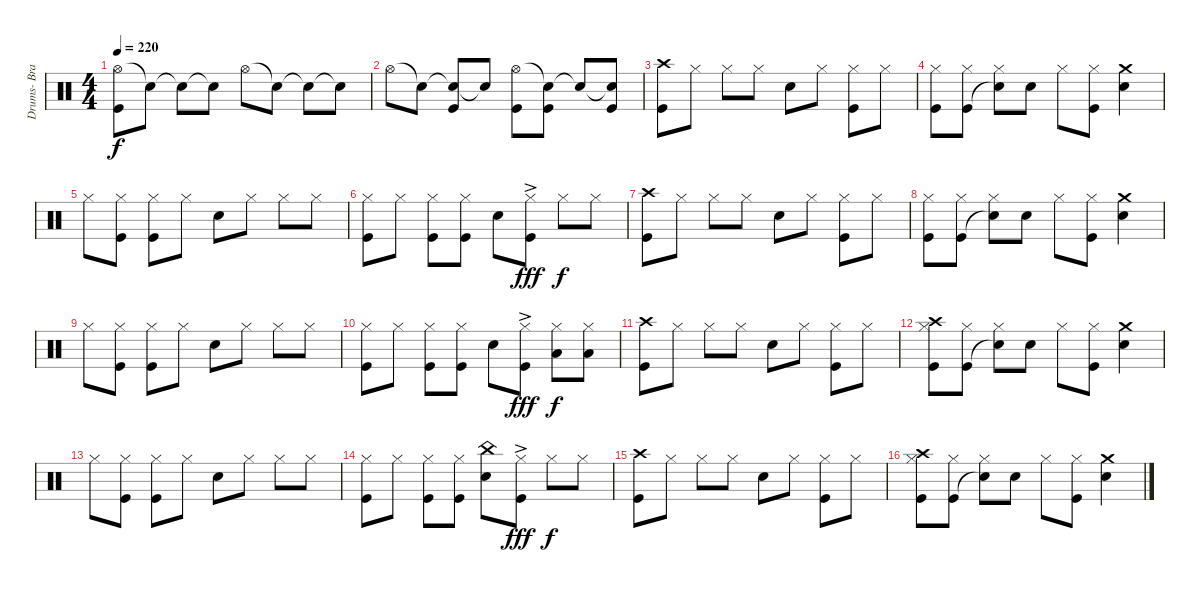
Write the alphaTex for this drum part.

\track ("Drums- Branden Steineckert" "Drums- Bra") {instrument percussion}
\staff {score}
\articulation defaults
\ts (4 4)
\tempo 220
\clef neutral
\ks c
("Hi-Hat (open)" "Kick (hit)").8{dy f} "Snare (hit)"{t}.8 "Snare (hit)"{t}.8 "Snare (hit)"{t}.8 "Hi-Hat (open)".8 "Snare (hit)"{t}.8 "Snare (hit)"{t}.8 "Snare (hit)"{t}.8 |
"Hi-Hat (open)".8 "Snare (hit)"{t}.8 ("Snare (hit)"{t} "Kick (hit)").8 "Snare (hit)"{t}.8 ("Hi-Hat (open)" "Kick (hit)").8 ("Snare (hit)"{t} "Kick (hit)").8 "Snare (hit)"{t}.8 ("Snare (hit)"{t} "Kick (hit)").8 |
("Crash high (hit)" "Kick (hit)").8 "Hi-Hat (closed)".8 "Hi-Hat (closed)".8 "Hi-Hat (closed)".8 "Snare (hit) 2".8 "Hi-Hat (closed)".8 ("Hi-Hat (closed)" "Kick (hit)").8 "Hi-Hat (closed)".8 |
("Hi-Hat (closed)" "Kick (hit)").8 ("Hi-Hat (closed)" "Kick (hit)").8 ("Hi-Hat (closed)" "Snare (hit)"{t}).8 "Snare (hit) 2".8 "Hi-Hat (closed)".8 ("Hi-Hat (closed)" "Kick (hit)").8 ("Crash medium (hit)" "Snare (hit) 2").4 |
"Hi-Hat (closed)".8 ("Hi-Hat (closed)" "Kick (hit)").8 ("Hi-Hat (closed)" "Kick (hit)").8 "Hi-Hat (closed)".8 "Snare (hit) 2".8 "Hi-Hat (closed)".8 "Hi-Hat (closed)".8 "Hi-Hat (closed)".8 |
("Hi-Hat (closed)" "Kick (hit)").8 "Hi-Hat (closed)".8 ("Hi-Hat (closed)" "Kick (hit)").8 ("Hi-Hat (closed)" "Kick (hit)").8 "Snare (hit) 2".8 ("Hi-Hat (closed)" "Kick (hit)"{ac}).8{dy fff} "Hi-Hat (closed)".8{dy f} "Hi-Hat (closed)".8 |
("Crash high (hit)" "Kick (hit)").8 "Hi-Hat (closed)".8 "Hi-Hat (closed)".8 "Hi-Hat (closed)".8 "Snare (hit) 2".8 "Hi-Hat (closed)".8 ("Hi-Hat (closed)" "Kick (hit)").8 "Hi-Hat (closed)".8 |
("Hi-Hat (closed)" "Kick (hit)").8 ("Hi-Hat (closed)" "Kick (hit)").8 ("Hi-Hat (closed)" "Snare (hit)"{t}).8 "Snare (hit) 2".8 "Hi-Hat (closed)".8 ("Hi-Hat (closed)" "Kick (hit)").8 ("Crash medium (hit)" "Snare (hit) 2").4 |
"Hi-Hat (closed)".8 ("Hi-Hat (closed)" "Kick (hit)").8 ("Hi-Hat (closed)" "Kick (hit)").8 "Hi-Hat (closed)".8 "Snare (hit) 2".8 "Hi-Hat (closed)".8 "Hi-Hat (closed)".8 "Hi-Hat (closed)".8 |
("Hi-Hat (closed)" "Kick (hit)").8 "Hi-Hat (closed)".8 ("Hi-Hat (closed)" "Kick (hit)").8 ("Hi-Hat (closed)" "Kick (hit)").8 "Snare (hit) 2".8 ("Hi-Hat (closed)" "Kick (hit)"{ac}).8{dy fff} ("Hi-Hat (closed)" "Low Tom (hit)").8{dy f} ("Hi-Hat (closed)" "Low Tom (hit)").8 |
("Crash high (hit)" "Kick (hit)").8 "Hi-Hat (closed)".8 "Hi-Hat (closed)".8 "Hi-Hat (closed)".8 "Snare (hit) 2".8 "Hi-Hat (closed)".8 ("Hi-Hat (closed)" "Kick (hit)").8 "Hi-Hat (closed)".8 |
("Crash high (hit)" "Hi-Hat (closed)" "Kick (hit)").8 ("Hi-Hat (closed)" "Kick (hit)").8 ("Hi-Hat (closed)" "Snare (hit)"{t}).8 "Snare (hit) 2".8 "Hi-Hat (closed)".8 ("Hi-Hat (closed)" "Kick (hit)").8 ("Crash medium (hit)" "Snare (hit) 2").4 |
"Hi-Hat (closed)".8 ("Hi-Hat (closed)" "Kick (hit)").8 ("Hi-Hat (closed)" "Kick (hit)").8 "Hi-Hat (closed)".8 "Snare (hit) 2".8 "Hi-Hat (closed)".8 "Hi-Hat (closed)".8 "Hi-Hat (closed)".8 |
("Hi-Hat (closed)" "Kick (hit)").8 "Hi-Hat (closed)".8 ("Hi-Hat (closed)" "Kick (hit)").8 ("Hi-Hat (closed)" "Kick (hit)").8 ("China (hit)" "Snare (hit) 2").8 ("Hi-Hat (closed)" "Kick (hit)"{ac}).8{dy fff} "Hi-Hat (closed)".8{dy f} "Hi-Hat (closed)".8 |
("Crash high (hit)" "Kick (hit)").8 "Hi-Hat (closed)".8 "Hi-Hat (closed)".8 "Hi-Hat (closed)".8 "Snare (hit) 2".8 "Hi-Hat (closed)".8 ("Hi-Hat (closed)" "Kick (hit)").8 "Hi-Hat (closed)".8 |
("Crash high (hit)" "Hi-Hat (closed)" "Kick (hit)").8 ("Hi-Hat (closed)" "Kick (hit)").8 ("Hi-Hat (closed)" "Snare (hit)"{t}).8 "Snare (hit) 2".8 "Hi-Hat (closed)".8 ("Hi-Hat (closed)" "Kick (hit)").8 ("Crash medium (hit)" "Snare (hit) 2").4
